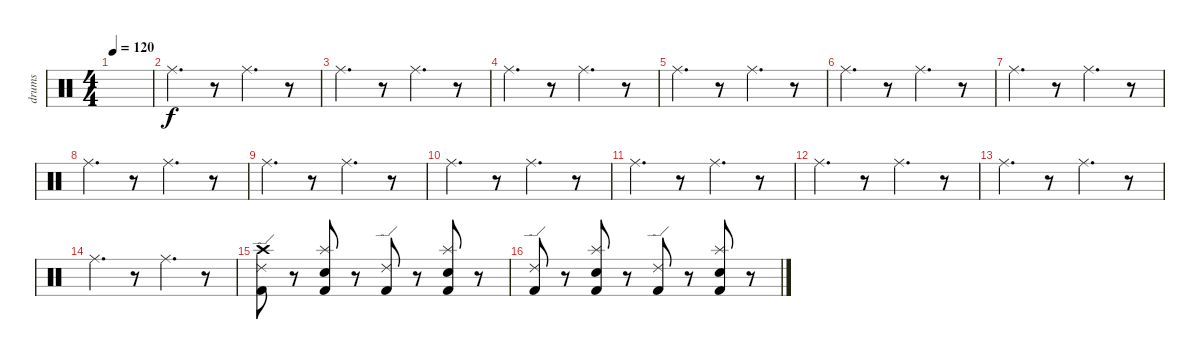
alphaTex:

\track ("drums" "drums") {instrument percussion}
\staff {score}
\articulation defaults
\ts (4 4)
\tempo 120
\clef neutral
\ks c
|
"Ride (middle)".4{d} r.8 "Ride (middle)".4{d} r.8 |
"Ride (middle)".4{d} r.8 "Ride (middle)".4{d} r.8 |
"Ride (middle)".4{d} r.8 "Ride (middle)".4{d} r.8 |
"Ride (middle)".4{d} r.8 "Ride (middle)".4{d} r.8 |
"Ride (middle)".4{d} r.8 "Ride (middle)".4{d} r.8 |
"Ride (middle)".4{d} r.8 "Ride (middle)".4{d} r.8 |
"Ride (middle)".4{d} r.8 "Ride (middle)".4{d} r.8 |
"Ride (middle)".4{d} r.8 "Ride (middle)".4{d} r.8 |
"Ride (middle)".4{d} r.8 "Ride (middle)".4{d} r.8 |
"Ride (middle)".4{d} r.8 "Ride (middle)".4{d} r.8 |
"Ride (middle)".4{d} r.8 "Ride (middle)".4{d} r.8 |
"Ride (middle)".4{d} r.8 "Ride (middle)".4{d} r.8 |
"Ride (middle)".4{d} r.8 "Ride (middle)".4{d} r.8 |
("Crash high (hit)" "Ride (edge) 2" "Kick (hit) 2").8 r.8 ("Splash (hit)" "Snare (hit) 2" "Kick (hit) 2").8 r.8 ("Ride (edge) 2" "Kick (hit) 2").8 r.8 ("Splash (hit)" "Snare (hit) 2" "Kick (hit) 2").8 r.8 |
("Ride (edge) 2" "Kick (hit) 2").8 r.8 ("Splash (hit)" "Snare (hit) 2" "Kick (hit) 2").8 r.8 ("Ride (edge) 2" "Kick (hit) 2").8 r.8 ("Splash (hit)" "Snare (hit) 2" "Kick (hit) 2").8 r.8
